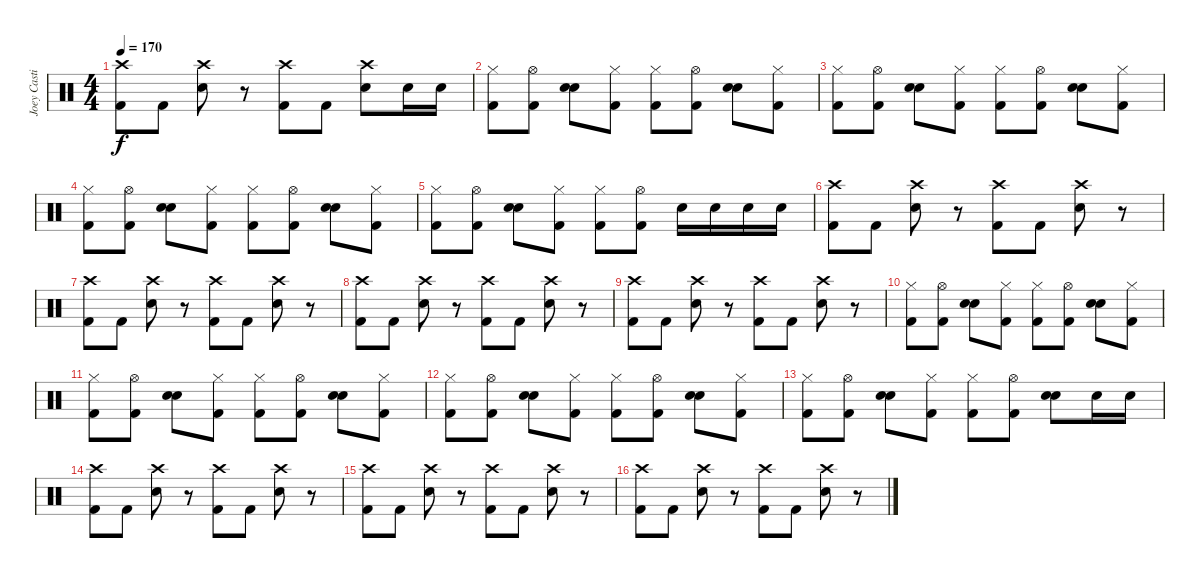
\track ("Joey Castillo - drums" "Joey Casti") {instrument percussion}
\staff {score}
\articulation defaults
\ts (4 4)
\tempo 170
\clef neutral
\ks c
("Kick (hit) 2" "Crash high (hit)").8{dy f} "Kick (hit) 2".8 ("Snare (hit) 2" "Crash high (hit)").8 r.8 ("Kick (hit) 2" "Crash high (hit)").8 "Kick (hit) 2".8 ("Snare (hit) 2" "Crash high (hit)").8 "Electric Snare (hit)".16 "Electric Snare (hit)".16 |
\section ("" "")
("Kick (hit) 2" "Hi-Hat (closed)").8 ("Kick (hit) 2" "Hi-Hat (open)").8 ("Snare (hit) 2" "Electric Snare (hit)").8 ("Kick (hit) 2" "Hi-Hat (closed)").8 ("Kick (hit) 2" "Hi-Hat (closed)").8 ("Kick (hit) 2" "Hi-Hat (open)").8 ("Snare (hit) 2" "Electric Snare (hit)").8 ("Kick (hit) 2" "Hi-Hat (closed)").8 |
("Kick (hit) 2" "Hi-Hat (closed)").8 ("Kick (hit) 2" "Hi-Hat (open)").8 ("Snare (hit) 2" "Electric Snare (hit)").8 ("Kick (hit) 2" "Hi-Hat (closed)").8 ("Kick (hit) 2" "Hi-Hat (closed)").8 ("Kick (hit) 2" "Hi-Hat (open)").8 ("Snare (hit) 2" "Electric Snare (hit)").8 ("Kick (hit) 2" "Hi-Hat (closed)").8 |
("Kick (hit) 2" "Hi-Hat (closed)").8 ("Kick (hit) 2" "Hi-Hat (open)").8 ("Snare (hit) 2" "Electric Snare (hit)").8 ("Kick (hit) 2" "Hi-Hat (closed)").8 ("Kick (hit) 2" "Hi-Hat (closed)").8 ("Kick (hit) 2" "Hi-Hat (open)").8 ("Snare (hit) 2" "Electric Snare (hit)").8 ("Kick (hit) 2" "Hi-Hat (closed)").8 |
("Kick (hit) 2" "Hi-Hat (closed)").8 ("Kick (hit) 2" "Hi-Hat (open)").8 ("Snare (hit) 2" "Electric Snare (hit)").8 ("Kick (hit) 2" "Hi-Hat (closed)").8 ("Kick (hit) 2" "Hi-Hat (closed)").8 ("Kick (hit) 2" "Hi-Hat (open)").8 "Electric Snare (hit)".16 "Electric Snare (hit)".16 "Electric Snare (hit)".16 "Electric Snare (hit)".16 |
\section ("" "")
("Kick (hit) 2" "Crash high (hit)").8 "Kick (hit) 2".8 ("Snare (hit) 2" "Crash high (hit)").8 r.8 ("Kick (hit) 2" "Crash high (hit)").8 "Kick (hit) 2".8 ("Snare (hit) 2" "Crash high (hit)").8 r.8 |
("Kick (hit) 2" "Crash high (hit)").8 "Kick (hit) 2".8 ("Snare (hit) 2" "Crash high (hit)").8 r.8 ("Kick (hit) 2" "Crash high (hit)").8 "Kick (hit) 2".8 ("Snare (hit) 2" "Crash high (hit)").8 r.8 |
("Kick (hit) 2" "Crash high (hit)").8 "Kick (hit) 2".8 ("Snare (hit) 2" "Crash high (hit)").8 r.8 ("Kick (hit) 2" "Crash high (hit)").8 "Kick (hit) 2".8 ("Snare (hit) 2" "Crash high (hit)").8 r.8 |
("Kick (hit) 2" "Crash high (hit)").8 "Kick (hit) 2".8 ("Snare (hit) 2" "Crash high (hit)").8 r.8 ("Kick (hit) 2" "Crash high (hit)").8 "Kick (hit) 2".8 ("Snare (hit) 2" "Crash high (hit)").8 r.8 |
\section ("" "")
("Kick (hit) 2" "Hi-Hat (closed)").8 ("Kick (hit) 2" "Hi-Hat (open)").8 ("Snare (hit) 2" "Electric Snare (hit)").8 ("Kick (hit) 2" "Hi-Hat (closed)").8 ("Kick (hit) 2" "Hi-Hat (closed)").8 ("Kick (hit) 2" "Hi-Hat (open)").8 ("Snare (hit) 2" "Electric Snare (hit)").8 ("Kick (hit) 2" "Hi-Hat (closed)").8 |
("Kick (hit) 2" "Hi-Hat (closed)").8 ("Kick (hit) 2" "Hi-Hat (open)").8 ("Snare (hit) 2" "Electric Snare (hit)").8 ("Kick (hit) 2" "Hi-Hat (closed)").8 ("Kick (hit) 2" "Hi-Hat (closed)").8 ("Kick (hit) 2" "Hi-Hat (open)").8 ("Snare (hit) 2" "Electric Snare (hit)").8 ("Kick (hit) 2" "Hi-Hat (closed)").8 |
("Kick (hit) 2" "Hi-Hat (closed)").8 ("Kick (hit) 2" "Hi-Hat (open)").8 ("Snare (hit) 2" "Electric Snare (hit)").8 ("Kick (hit) 2" "Hi-Hat (closed)").8 ("Kick (hit) 2" "Hi-Hat (closed)").8 ("Kick (hit) 2" "Hi-Hat (open)").8 ("Snare (hit) 2" "Electric Snare (hit)").8 ("Kick (hit) 2" "Hi-Hat (closed)").8 |
("Kick (hit) 2" "Hi-Hat (closed)").8 ("Kick (hit) 2" "Hi-Hat (open)").8 ("Snare (hit) 2" "Electric Snare (hit)").8 ("Kick (hit) 2" "Hi-Hat (closed)").8 ("Kick (hit) 2" "Hi-Hat (closed)").8 ("Kick (hit) 2" "Hi-Hat (open)").8 ("Snare (hit) 2" "Electric Snare (hit)").8 "Electric Snare (hit)".16 "Electric Snare (hit)".16 |
\section ("" "")
("Kick (hit) 2" "Crash high (hit)").8 "Kick (hit) 2".8 ("Snare (hit) 2" "Crash high (hit)").8 r.8 ("Kick (hit) 2" "Crash high (hit)").8 "Kick (hit) 2".8 ("Snare (hit) 2" "Crash high (hit)").8 r.8 |
("Kick (hit) 2" "Crash high (hit)").8 "Kick (hit) 2".8 ("Snare (hit) 2" "Crash high (hit)").8 r.8 ("Kick (hit) 2" "Crash high (hit)").8 "Kick (hit) 2".8 ("Snare (hit) 2" "Crash high (hit)").8 r.8 |
("Kick (hit) 2" "Crash high (hit)").8 "Kick (hit) 2".8 ("Snare (hit) 2" "Crash high (hit)").8 r.8 ("Kick (hit) 2" "Crash high (hit)").8 "Kick (hit) 2".8 ("Snare (hit) 2" "Crash high (hit)").8 r.8
